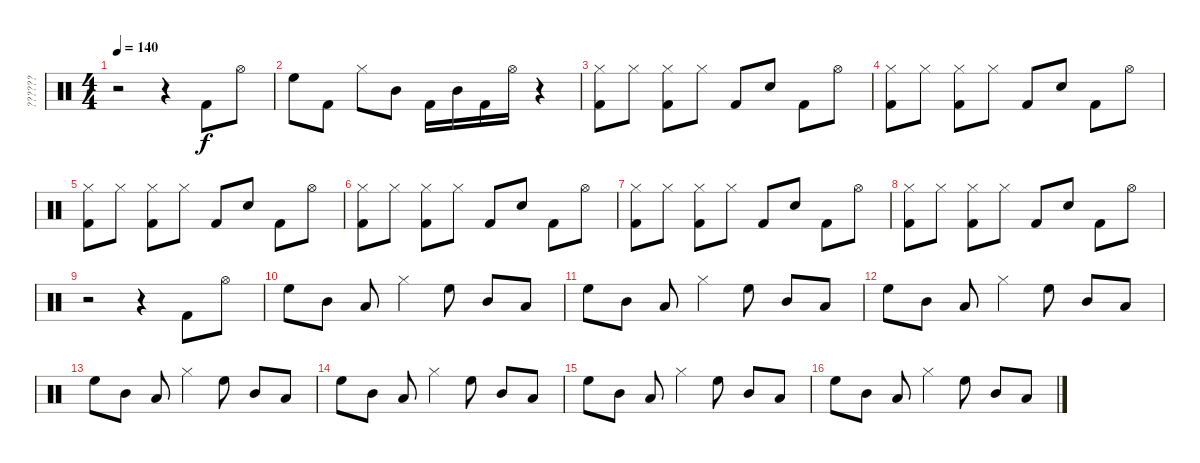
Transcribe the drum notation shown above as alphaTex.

\track ("??????" "??????") {instrument percussion}
\staff {score}
\articulation defaults
\ts (4 4)
\tempo 140
\clef neutral
\ks c
r.2{dy f} r.4 "Kick (hit) 2".8 "Hi-Hat (open)".8 |
"High Floor Tom (hit)".8 "Kick (hit) 2".8 "Hi-Hat (closed)".8 "Mid Tom (hit)".8 "Kick (hit) 2".16 "Mid Tom (hit)".16 "Kick (hit) 2".16 "Hi-Hat (open)".16 r.4 |
("Hi-Hat (closed)" "Kick (hit) 2").8 "Hi-Hat (closed)".8 ("Hi-Hat (closed)" "Kick (hit) 2").8 "Hi-Hat (closed)".8 "Kick (hit) 2".8 "Snare (hit) 2".8 "Kick (hit) 2".8 "Hi-Hat (open)".8 |
("Hi-Hat (closed)" "Kick (hit) 2").8 "Hi-Hat (closed)".8 ("Hi-Hat (closed)" "Kick (hit) 2").8 "Hi-Hat (closed)".8 "Kick (hit) 2".8 "Snare (hit) 2".8 "Kick (hit) 2".8 "Hi-Hat (open)".8 |
("Hi-Hat (closed)" "Kick (hit) 2").8 "Hi-Hat (closed)".8 ("Hi-Hat (closed)" "Kick (hit) 2").8 "Hi-Hat (closed)".8 "Kick (hit) 2".8 "Snare (hit) 2".8 "Kick (hit) 2".8 "Hi-Hat (open)".8 |
("Hi-Hat (closed)" "Kick (hit) 2").8 "Hi-Hat (closed)".8 ("Hi-Hat (closed)" "Kick (hit) 2").8 "Hi-Hat (closed)".8 "Kick (hit) 2".8 "Snare (hit) 2".8 "Kick (hit) 2".8 "Hi-Hat (open)".8 |
("Hi-Hat (closed)" "Kick (hit) 2").8 "Hi-Hat (closed)".8 ("Hi-Hat (closed)" "Kick (hit) 2").8 "Hi-Hat (closed)".8 "Kick (hit) 2".8 "Snare (hit) 2".8 "Kick (hit) 2".8 "Hi-Hat (open)".8 |
("Hi-Hat (closed)" "Kick (hit) 2").8 "Hi-Hat (closed)".8 ("Hi-Hat (closed)" "Kick (hit) 2").8 "Hi-Hat (closed)".8 "Kick (hit) 2".8 "Snare (hit) 2".8 "Kick (hit) 2".8 "Hi-Hat (open)".8 |
r.2 r.4 "Kick (hit) 2".8 "Hi-Hat (open)".8 |
"High Floor Tom (hit)".8 "Mid Tom (hit)".8 "Low Tom (hit)".8 "Hi-Hat (closed)".4 "High Floor Tom (hit)".8 "Mid Tom (hit)".8 "Low Tom (hit)".8 |
"High Floor Tom (hit)".8 "Mid Tom (hit)".8 "Low Tom (hit)".8 "Hi-Hat (closed)".4 "High Floor Tom (hit)".8 "Mid Tom (hit)".8 "Low Tom (hit)".8 |
"High Floor Tom (hit)".8 "Mid Tom (hit)".8 "Low Tom (hit)".8 "Hi-Hat (closed)".4 "High Floor Tom (hit)".8 "Mid Tom (hit)".8 "Low Tom (hit)".8 |
"High Floor Tom (hit)".8 "Mid Tom (hit)".8 "Low Tom (hit)".8 "Hi-Hat (closed)".4 "High Floor Tom (hit)".8 "Mid Tom (hit)".8 "Low Tom (hit)".8 |
"High Floor Tom (hit)".8 "Mid Tom (hit)".8 "Low Tom (hit)".8 "Hi-Hat (closed)".4 "High Floor Tom (hit)".8 "Mid Tom (hit)".8 "Low Tom (hit)".8 |
"High Floor Tom (hit)".8 "Mid Tom (hit)".8 "Low Tom (hit)".8 "Hi-Hat (closed)".4 "High Floor Tom (hit)".8 "Mid Tom (hit)".8 "Low Tom (hit)".8 |
"High Floor Tom (hit)".8 "Mid Tom (hit)".8 "Low Tom (hit)".8 "Hi-Hat (closed)".4 "High Floor Tom (hit)".8 "Mid Tom (hit)".8 "Low Tom (hit)".8
